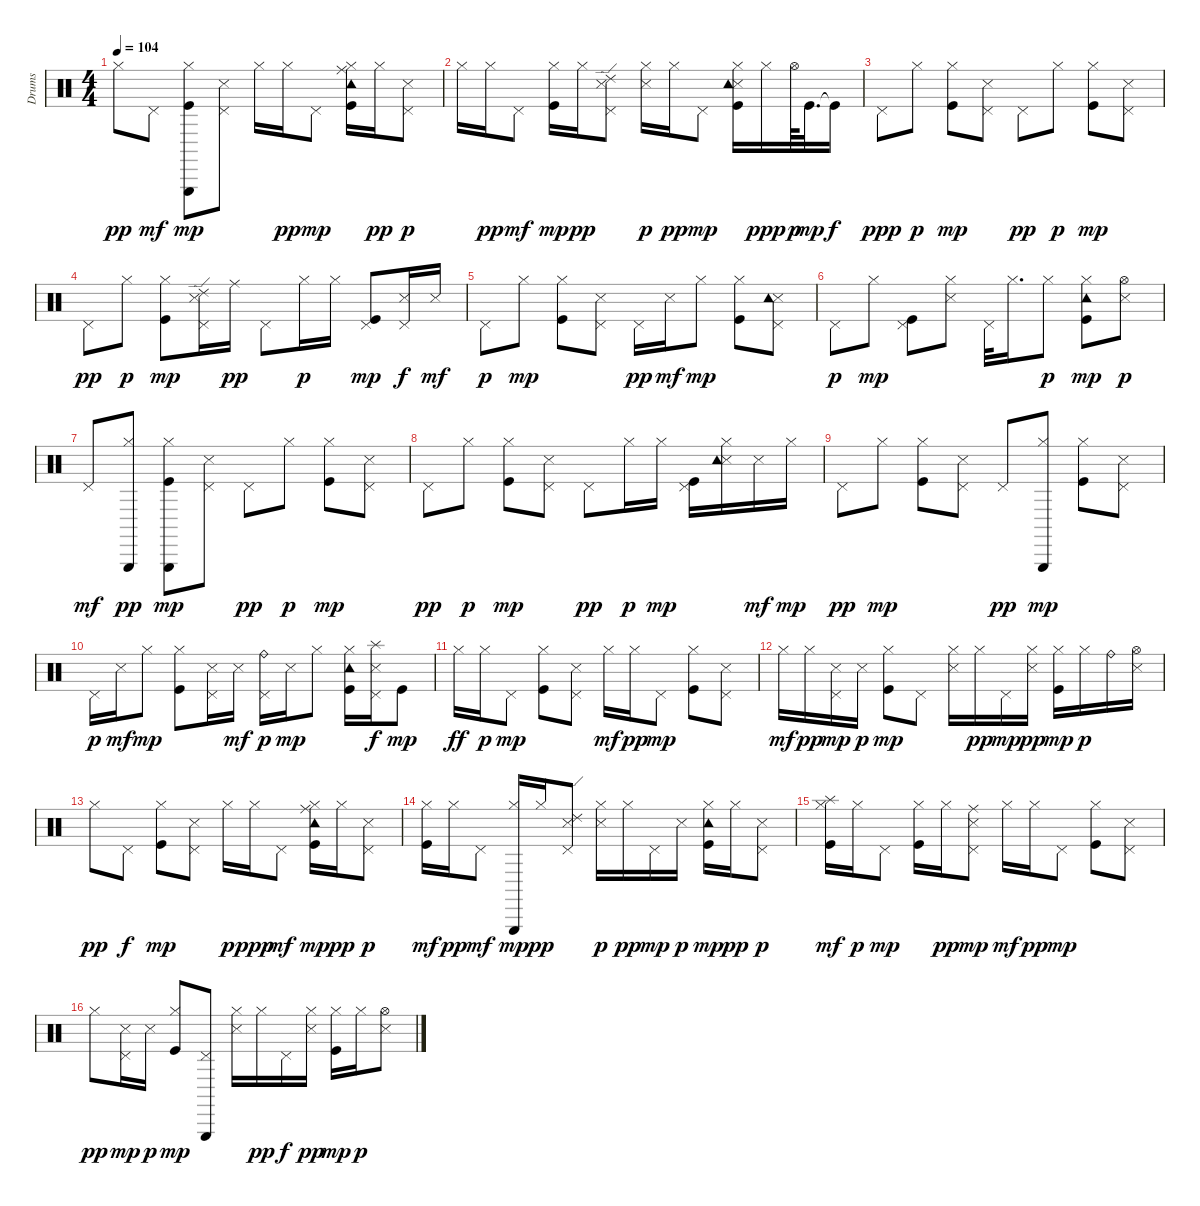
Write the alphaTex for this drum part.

\track ("Drums" "Drums") {instrument percussion}
\staff {score}
\articulation defaults
\ts (4 4)
\tempo 104
\clef neutral
\ks c "Hi-Hat (closed)".8{dy pp} "Pedal Hi-Hat (hit)".8{dy mf}
("Hi-Hat (closed)" "Triangle (hit)" "Kick (hit)").8{dy mp} ("Pedal Hi-Hat (hit)" "Snare (side stick) 3").8 "Hi-Hat (closed)".16 "Hi-Hat (closed)".16{dy pp} "Pedal Hi-Hat (hit)".8{dy mp} ("Hi-Hat (closed)" "Ride (middle)" "Tambourine (hit)" "Kick (hit)").16 "Hi-Hat (closed)".16{dy pp} ("Pedal Hi-Hat (hit)" "Snare (side stick) 3").8{dy p} |
"Hi-Hat (closed)".16 "Hi-Hat (closed)".16{dy pp} "Pedal Hi-Hat (hit)".8{dy mf} ("Hi-Hat (closed)" "Kick (hit)").16{dy mp} "Hi-Hat (closed)".16{dy pp} ("Pedal Hi-Hat (hit)" "Ride (edge) 2" "Snare (side stick) 3").8 ("Hi-Hat (closed)" "Snare (side stick) 3").16{dy p} "Hi-Hat (closed)".16{dy pp} "Pedal Hi-Hat (hit)".8{dy mp} ("Hi-Hat (closed)" "Snare (side stick) 3" "Tambourine (hit)" "Kick (hit)").16 "Hi-Hat (closed)".16{dy ppp} "Hi-Hat (open)".64{dy p} "Kick (hit)".32{d dy mp} "Kick (hit)"{t}.16{dy f} |
"Pedal Hi-Hat (hit)".8{dy ppp} "Hi-Hat (closed)".8{dy p} ("Hi-Hat (closed)" "Kick (hit)").8{dy mp} ("Pedal Hi-Hat (hit)" "Snare (side stick) 3").8 "Pedal Hi-Hat (hit)".8{dy pp} "Hi-Hat (closed)".8{dy p} ("Hi-Hat (closed)" "Kick (hit)").8{dy mp} ("Pedal Hi-Hat (hit)" "Snare (side stick) 3").8 |
"Pedal Hi-Hat (hit)".8{dy pp} "Hi-Hat (closed)".8{dy p} ("Hi-Hat (closed)" "Kick (hit)").8{dy mp} ("Pedal Hi-Hat (hit)" "Ride (edge) 2" "Snare (side stick) 3").16 "Ride (middle)".16{dy pp} "Pedal Hi-Hat (hit)".8 "Hi-Hat (closed)".16{dy p} "Hi-Hat (closed)".16 ("Pedal Hi-Hat (hit)" "Kick (hit)").8{dy mp} ("Pedal Hi-Hat (hit)" "Snare (side stick) 3").16{dy f} "Snare (side stick) 3".16{dy mf} |
"Pedal Hi-Hat (hit)".8{dy p} "Hi-Hat (closed)".8{dy mp} ("Hi-Hat (closed)" "Kick (hit)").8 ("Pedal Hi-Hat (hit)" "Snare (side stick) 3").8 "Pedal Hi-Hat (hit)".16{dy pp} "Snare (side stick) 3".16{dy mf} "Hi-Hat (closed)".8{dy mp} ("Hi-Hat (closed)" "Kick (hit)").8 ("Pedal Hi-Hat (hit)" "Snare (side stick) 3" "Tambourine (hit)").8 |
"Pedal Hi-Hat (hit)".8{dy p} "Hi-Hat (closed)".8{dy mp} ("Pedal Hi-Hat (hit)" "Kick (hit)").8 ("Hi-Hat (closed)" "Snare (side stick) 3").8 "Pedal Hi-Hat (hit)".32 "Hi-Hat (closed)".16{d} "Hi-Hat (closed)".8{dy p} ("Hi-Hat (closed)" "Tambourine (hit)" "Kick (hit)").8{dy mp} ("Hi-Hat (open)" "Snare (side stick) 3").8{dy p} |
"Pedal Hi-Hat (hit)".8{dy mf} ("Hi-Hat (closed)" "Triangle (hit)").8{dy pp} ("Hi-Hat (closed)" "Triangle (hit)" "Kick (hit)").8{dy mp} ("Pedal Hi-Hat (hit)" "Snare (side stick) 3").8 "Pedal Hi-Hat (hit)".8{dy pp} "Hi-Hat (closed)".8{dy p} ("Hi-Hat (closed)" "Kick (hit)").8{dy mp} ("Pedal Hi-Hat (hit)" "Snare (side stick) 3").8 |
"Pedal Hi-Hat (hit)".8{dy pp} "Hi-Hat (closed)".8{dy p} ("Hi-Hat (closed)" "Kick (hit)").8{dy mp} ("Pedal Hi-Hat (hit)" "Snare (side stick) 3").8 "Pedal Hi-Hat (hit)".8{dy pp} "Hi-Hat (closed)".16{dy p} "Hi-Hat (closed)".16{dy mp} ("Pedal Hi-Hat (hit)" "Kick (hit)").16 ("Hi-Hat (closed)" "Snare (side stick) 3" "Tambourine (hit)").16 "Snare (side stick) 3".16{dy mf} "Hi-Hat (closed)".16{dy mp} |
"Pedal Hi-Hat (hit)".8{dy pp} "Hi-Hat (closed)".8{dy mp} ("Hi-Hat (closed)" "Kick (hit)").8 ("Pedal Hi-Hat (hit)" "Snare (side stick) 3").8 "Pedal Hi-Hat (hit)".8{dy pp} ("Hi-Hat (closed)" "Triangle (hit)").8{dy mp} ("Hi-Hat (closed)" "Kick (hit)").8 ("Pedal Hi-Hat (hit)" "Snare (side stick) 3").8 |
"Pedal Hi-Hat (hit)".16{dy p} "Snare (side stick) 3".16{dy mf} "Hi-Hat (closed)".8{dy mp} ("Hi-Hat (closed)" "Kick (hit)").8 ("Pedal Hi-Hat (hit)" "Snare (side stick) 3").16 "Snare (side stick) 3".16{dy mf} ("Pedal Hi-Hat (hit)" "Ride (bell)").16{dy p} "Snare (side stick) 3".16{dy mp} "Hi-Hat (closed)".8 ("Hi-Hat (closed)" "Tambourine (hit)" "Kick (hit)").16 ("Pedal Hi-Hat (hit)" "Splash (hit)" "Snare (side stick) 3").16{dy f} "Kick (hit)".8{dy mp} |
"Hi-Hat (closed)".16{dy ff} "Hi-Hat (closed)".16{dy p} "Pedal Hi-Hat (hit)".8{dy mp} ("Hi-Hat (closed)" "Kick (hit)").8 ("Pedal Hi-Hat (hit)" "Snare (side stick) 3").8 "Hi-Hat (closed)".16{dy mf} "Hi-Hat (closed)".16{dy pp} "Pedal Hi-Hat (hit)".8{dy mp} ("Hi-Hat (closed)" "Kick (hit)").8 ("Pedal Hi-Hat (hit)" "Snare (side stick) 3").8 |
"Hi-Hat (closed)".16{dy mf} "Hi-Hat (closed)".16{dy pp} ("Pedal Hi-Hat (hit)" "Snare (side stick) 3").16{dy mp} "Snare (side stick) 3".16{dy p} ("Hi-Hat (closed)" "Kick (hit)").8{dy mp} "Pedal Hi-Hat (hit)".8 ("Hi-Hat (closed)" "Snare (side stick) 3").16 "Hi-Hat (closed)".16{dy pp} "Pedal Hi-Hat (hit)".16{dy mp} ("Hi-Hat (closed)" "Snare (side stick) 3").16{dy pp} ("Hi-Hat (closed)" "Kick (hit)").16{dy mp} "Hi-Hat (closed)".16{dy p} "Ride (bell)".16 ("Hi-Hat (open)" "Snare (side stick) 3").16 |
"Hi-Hat (closed)".8{dy pp} "Pedal Hi-Hat (hit)".8{dy f} ("Hi-Hat (closed)" "Kick (hit)").8{dy mp} ("Pedal Hi-Hat (hit)" "Snare (side stick) 3").8 "Hi-Hat (closed)".16{dy p} "Hi-Hat (closed)".16{dy ppp} "Pedal Hi-Hat (hit)".8{dy mf} ("Hi-Hat (closed)" "Ride (middle)" "Tambourine (hit)" "Kick (hit)").16{dy mp} "Hi-Hat (closed)".16{dy pp} ("Pedal Hi-Hat (hit)" "Snare (side stick) 3").8{dy p} |
("Hi-Hat (closed)" "Kick (hit)").16{dy mf} "Hi-Hat (closed)".16{dy pp} "Pedal Hi-Hat (hit)".8{dy mf} ("Hi-Hat (closed)" "Triangle (hit)").16{dy mp} "Hi-Hat (closed)".16{dy pp} ("Pedal Hi-Hat (hit)" "Ride (edge) 2" "Snare (side stick) 3").8 ("Hi-Hat (closed)" "Snare (side stick) 3").16{dy p} "Hi-Hat (closed)".16{dy pp} "Pedal Hi-Hat (hit)".16{dy mp} "Snare (side stick) 3".16{dy p} ("Hi-Hat (closed)" "Tambourine (hit)" "Kick (hit)").16{dy mp} "Hi-Hat (closed)".16{dy pp} ("Pedal Hi-Hat (hit)" "Snare (side stick) 3").8{dy p} |
("Hi-Hat (closed)" "Splash (hit)" "Kick (hit)").16{dy mf} "Hi-Hat (closed)".16{dy p} "Pedal Hi-Hat (hit)".8{dy mp} ("Hi-Hat (closed)" "Kick (hit)").16 "Hi-Hat (closed)".16{dy pp} ("Pedal Hi-Hat (hit)" "Ride (middle)" "Snare (side stick) 3").8{dy mp} "Hi-Hat (closed)".16{dy mf} "Hi-Hat (closed)".16{dy pp} "Pedal Hi-Hat (hit)".8{dy mp} ("Hi-Hat (closed)" "Kick (hit)").8 ("Pedal Hi-Hat (hit)" "Snare (side stick) 3").8 |
"Hi-Hat (closed)".8{dy pp} ("Pedal Hi-Hat (hit)" "Snare (side stick) 3").16{dy mp} "Snare (side stick) 3".16{dy p} ("Hi-Hat (closed)" "Kick (hit)").8{dy mp} ("Pedal Hi-Hat (hit)" "Triangle (hit)").8 ("Hi-Hat (closed)" "Snare (side stick) 3").16 "Hi-Hat (closed)".16{dy pp} "Pedal Hi-Hat (hit)".16{dy f} ("Hi-Hat (closed)" "Snare (side stick) 3").16{dy pp} ("Hi-Hat (closed)" "Kick (hit)").16{dy mp} "Hi-Hat (closed)".16{dy p} ("Hi-Hat (open)" "Snare (side stick) 3").8
